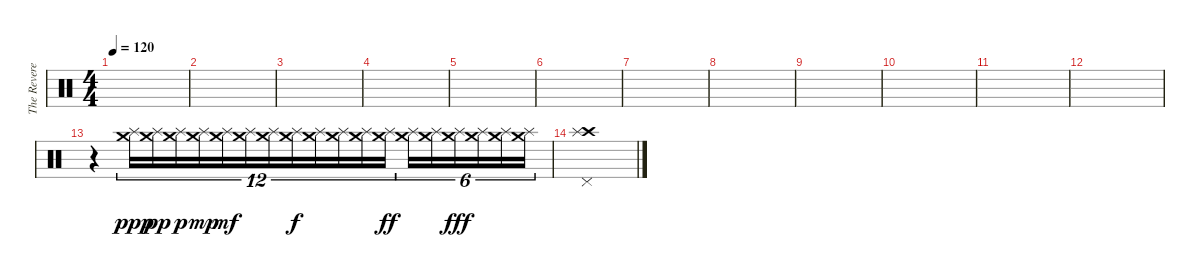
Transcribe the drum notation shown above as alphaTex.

\track ("The Reverend" "The Revere") {instrument percussion}
\staff {score}
\articulation defaults
\ts (4 4)
\tempo 120
\clef neutral
\ks c
|
|
|
|
|
|
|
|
|
|
|
|
r.4{volume 3} ("Splash (hit)" "Crash medium (hit)").16{tu (12 8) dy ppp volume 16} ("Splash (hit)" "Crash medium (hit)").16{tu (12 8) dy pp} ("Splash (hit)" "Crash medium (hit)").16{tu (12 8) dy p} ("Splash (hit)" "Crash medium (hit)").16{tu (12 8) dy mp} ("Splash (hit)" "Crash medium (hit)").16{tu (12 8) dy mf} ("Splash (hit)" "Crash medium (hit)").16{tu (12 8)} ("Splash (hit)" "Crash medium (hit)").16{tu (12 8)} ("Splash (hit)" "Crash medium (hit)").16{tu (12 8) dy f} ("Splash (hit)" "Crash medium (hit)").16{tu (12 8)} ("Splash (hit)" "Crash medium (hit)").16{tu (12 8)} ("Splash (hit)" "Crash medium (hit)").16{tu (12 8)} ("Splash (hit)" "Crash medium (hit)").16{tu (12 8) dy ff} ("Splash (hit)" "Crash medium (hit)").16{tu (6 4)} ("Splash (hit)" "Crash medium (hit)").16{tu (6 4)} ("Splash (hit)" "Crash medium (hit)").16{tu (6 4) dy fff} ("Splash (hit)" "Crash medium (hit)").16{tu (6 4)} ("Splash (hit)" "Crash medium (hit)").16{tu (6 4)} ("Splash (hit)" "Crash medium (hit)").16{tu (6 4)} |
("Crash high (hit)" "Splash (hit)" "Pedal Hi-Hat (hit)").1
